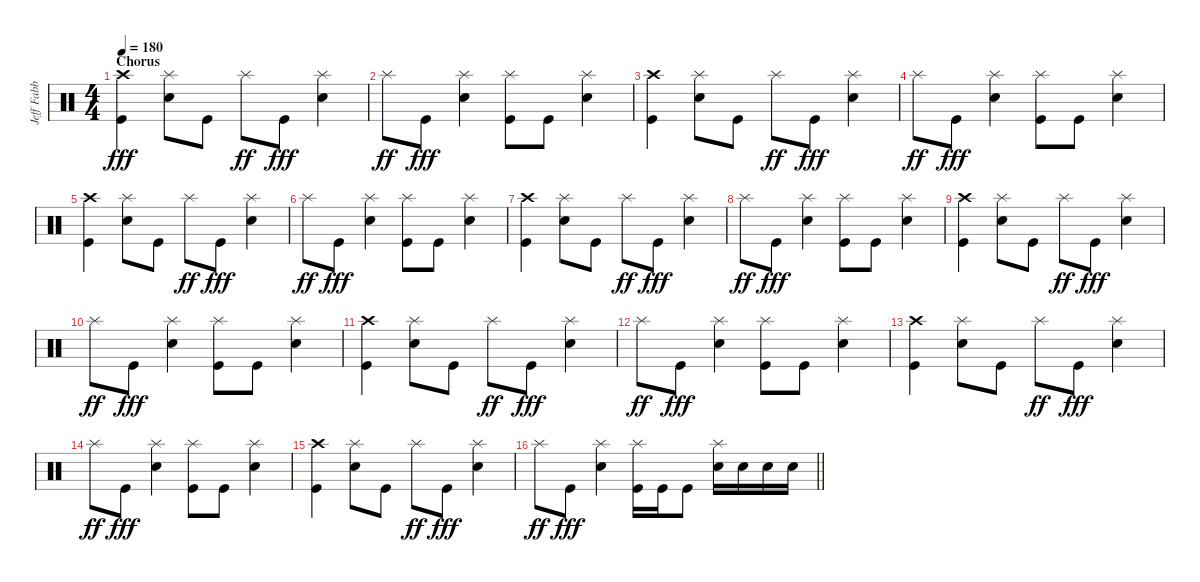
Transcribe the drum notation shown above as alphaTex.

\track ("Jeff Fabb (Drums)" "Jeff Fabb ") {instrument percussion}
\staff {score}
\articulation defaults
\ts (4 4)
\section ("" "Chorus")
\tempo 180
\clef neutral
\ks c
("Crash high (hit)" "Kick (hit)").4{dy fff} ("Splash (hit)" "Electric Snare (hit)").8 "Kick (hit)".8 "Splash (hit)".8{dy ff} "Kick (hit)".8{dy fff} ("Splash (hit)" "Electric Snare (hit)").4 |
"Splash (hit)".8{dy ff} "Kick (hit)".8{dy fff} ("Splash (hit)" "Electric Snare (hit)").4 ("Splash (hit)" "Kick (hit)").8 "Kick (hit)".8 ("Splash (hit)" "Electric Snare (hit)").4 |
("Crash high (hit)" "Kick (hit)").4 ("Splash (hit)" "Electric Snare (hit)").8 "Kick (hit)".8 "Splash (hit)".8{dy ff} "Kick (hit)".8{dy fff} ("Splash (hit)" "Electric Snare (hit)").4 |
"Splash (hit)".8{dy ff} "Kick (hit)".8{dy fff} ("Splash (hit)" "Electric Snare (hit)").4 ("Splash (hit)" "Kick (hit)").8 "Kick (hit)".8 ("Splash (hit)" "Electric Snare (hit)").4 |
("Crash high (hit)" "Kick (hit)").4 ("Splash (hit)" "Electric Snare (hit)").8 "Kick (hit)".8 "Splash (hit)".8{dy ff} "Kick (hit)".8{dy fff} ("Splash (hit)" "Electric Snare (hit)").4 |
"Splash (hit)".8{dy ff} "Kick (hit)".8{dy fff} ("Splash (hit)" "Electric Snare (hit)").4 ("Splash (hit)" "Kick (hit)").8 "Kick (hit)".8 ("Splash (hit)" "Electric Snare (hit)").4 |
("Crash high (hit)" "Kick (hit)").4 ("Splash (hit)" "Electric Snare (hit)").8 "Kick (hit)".8 "Splash (hit)".8{dy ff} "Kick (hit)".8{dy fff} ("Splash (hit)" "Electric Snare (hit)").4 |
"Splash (hit)".8{dy ff} "Kick (hit)".8{dy fff} ("Splash (hit)" "Electric Snare (hit)").4 ("Splash (hit)" "Kick (hit)").8 "Kick (hit)".8 ("Splash (hit)" "Electric Snare (hit)").4 |
("Crash high (hit)" "Kick (hit)").4 ("Splash (hit)" "Electric Snare (hit)").8 "Kick (hit)".8 "Splash (hit)".8{dy ff} "Kick (hit)".8{dy fff} ("Splash (hit)" "Electric Snare (hit)").4 |
"Splash (hit)".8{dy ff} "Kick (hit)".8{dy fff} ("Splash (hit)" "Electric Snare (hit)").4 ("Splash (hit)" "Kick (hit)").8 "Kick (hit)".8 ("Splash (hit)" "Electric Snare (hit)").4 |
("Crash high (hit)" "Kick (hit)").4 ("Splash (hit)" "Electric Snare (hit)").8 "Kick (hit)".8 "Splash (hit)".8{dy ff} "Kick (hit)".8{dy fff} ("Splash (hit)" "Electric Snare (hit)").4 |
"Splash (hit)".8{dy ff} "Kick (hit)".8{dy fff} ("Splash (hit)" "Electric Snare (hit)").4 ("Splash (hit)" "Kick (hit)").8 "Kick (hit)".8 ("Splash (hit)" "Electric Snare (hit)").4 |
("Crash high (hit)" "Kick (hit)").4 ("Splash (hit)" "Electric Snare (hit)").8 "Kick (hit)".8 "Splash (hit)".8{dy ff} "Kick (hit)".8{dy fff} ("Splash (hit)" "Electric Snare (hit)").4 |
"Splash (hit)".8{dy ff} "Kick (hit)".8{dy fff} ("Splash (hit)" "Electric Snare (hit)").4 ("Splash (hit)" "Kick (hit)").8 "Kick (hit)".8 ("Splash (hit)" "Electric Snare (hit)").4 |
("Crash high (hit)" "Kick (hit)").4 ("Splash (hit)" "Electric Snare (hit)").8 "Kick (hit)".8 "Splash (hit)".8{dy ff} "Kick (hit)".8{dy fff} ("Splash (hit)" "Electric Snare (hit)").4 |
\barLineRight lightlight "Splash (hit)".8{dy ff} "Kick (hit)".8{dy fff}
("Splash (hit)" "Electric Snare (hit)").4 ("Splash (hit)" "Kick (hit)").16 "Kick (hit)".16 "Kick (hit)".8 ("Splash (hit)" "Electric Snare (hit)").16 "Electric Snare (hit)".16 "Electric Snare (hit)".16 "Electric Snare (hit)".16
